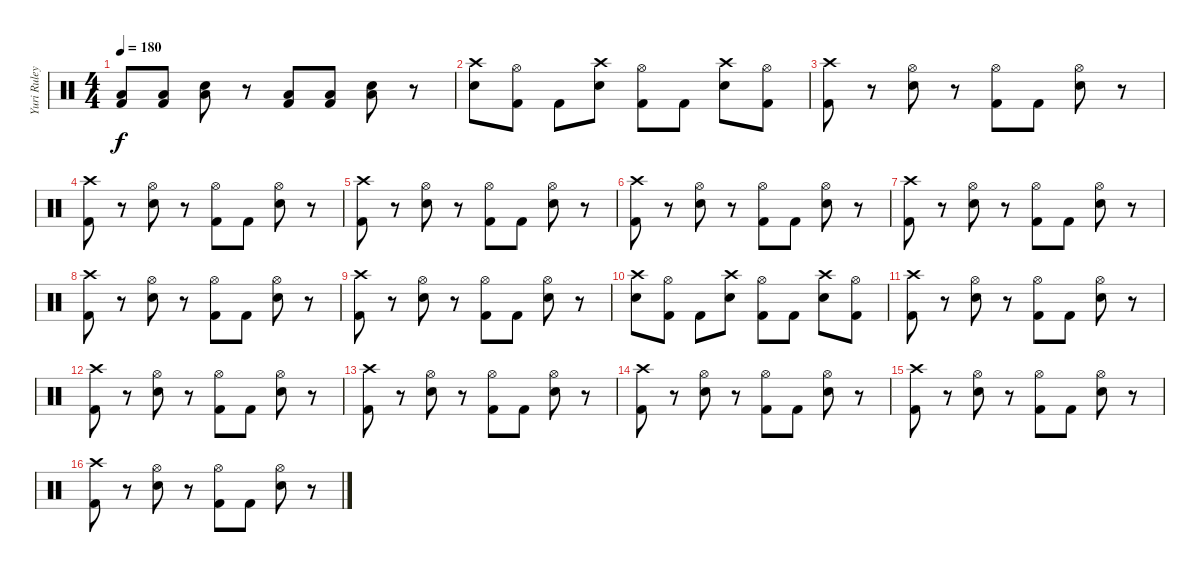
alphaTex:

\track ("Yuri Ruley [Drums]" "Yuri Ruley") {instrument percussion}
\staff {score}
\articulation defaults
\ts (4 4)
\tempo 180
\clef neutral
\ks c
("Low Floor Tom (hit)" "Kick (hit) 2").8{dy f} ("Low Floor Tom (hit)" "Kick (hit) 2").8 ("Low Floor Tom (hit)" "Snare (hit) 2").8 r.8 ("Low Floor Tom (hit)" "Kick (hit) 2").8 ("Low Floor Tom (hit)" "Kick (hit) 2").8 ("Low Floor Tom (hit)" "Snare (hit) 2").8 r.8 |
("Crash high (hit)" "Snare (hit) 2").8 ("Hi-Hat (open)" "Kick (hit) 2").8 "Kick (hit) 2".8 ("Crash high (hit)" "Snare (hit) 2").8 ("Hi-Hat (open)" "Kick (hit) 2").8 "Kick (hit) 2".8 ("Crash high (hit)" "Snare (hit) 2").8 ("Hi-Hat (open)" "Kick (hit) 2").8 |
("Crash high (hit)" "Kick (hit) 2").8 r.8 ("Hi-Hat (open)" "Snare (hit) 2").8 r.8 ("Hi-Hat (open)" "Kick (hit) 2").8 "Kick (hit) 2".8 ("Hi-Hat (open)" "Snare (hit) 2").8 r.8 |
("Crash high (hit)" "Kick (hit) 2").8 r.8 ("Hi-Hat (open)" "Snare (hit) 2").8 r.8 ("Hi-Hat (open)" "Kick (hit) 2").8 "Kick (hit) 2".8 ("Hi-Hat (open)" "Snare (hit) 2").8 r.8 |
("Crash high (hit)" "Kick (hit) 2").8 r.8 ("Hi-Hat (open)" "Snare (hit) 2").8 r.8 ("Hi-Hat (open)" "Kick (hit) 2").8 "Kick (hit) 2".8 ("Hi-Hat (open)" "Snare (hit) 2").8 r.8 |
("Crash high (hit)" "Kick (hit) 2").8 r.8 ("Hi-Hat (open)" "Snare (hit) 2").8 r.8 ("Hi-Hat (open)" "Kick (hit) 2").8 "Kick (hit) 2".8 ("Hi-Hat (open)" "Snare (hit) 2").8 r.8 |
("Crash high (hit)" "Kick (hit) 2").8 r.8 ("Hi-Hat (open)" "Snare (hit) 2").8 r.8 ("Hi-Hat (open)" "Kick (hit) 2").8 "Kick (hit) 2".8 ("Hi-Hat (open)" "Snare (hit) 2").8 r.8 |
("Crash high (hit)" "Kick (hit) 2").8 r.8 ("Hi-Hat (open)" "Snare (hit) 2").8 r.8 ("Hi-Hat (open)" "Kick (hit) 2").8 "Kick (hit) 2".8 ("Hi-Hat (open)" "Snare (hit) 2").8 r.8 |
("Crash high (hit)" "Kick (hit) 2").8 r.8 ("Hi-Hat (open)" "Snare (hit) 2").8 r.8 ("Hi-Hat (open)" "Kick (hit) 2").8 "Kick (hit) 2".8 ("Hi-Hat (open)" "Snare (hit) 2").8 r.8 |
("Crash high (hit)" "Snare (hit) 2").8 ("Hi-Hat (open)" "Kick (hit) 2").8 "Kick (hit) 2".8 ("Crash high (hit)" "Snare (hit) 2").8 ("Hi-Hat (open)" "Kick (hit) 2").8 "Kick (hit) 2".8 ("Crash high (hit)" "Snare (hit) 2").8 ("Hi-Hat (open)" "Kick (hit) 2").8 |
("Crash high (hit)" "Kick (hit) 2").8 r.8 ("Hi-Hat (open)" "Snare (hit) 2").8 r.8 ("Hi-Hat (open)" "Kick (hit) 2").8 "Kick (hit) 2".8 ("Hi-Hat (open)" "Snare (hit) 2").8 r.8 |
("Crash high (hit)" "Kick (hit) 2").8 r.8 ("Hi-Hat (open)" "Snare (hit) 2").8 r.8 ("Hi-Hat (open)" "Kick (hit) 2").8 "Kick (hit) 2".8 ("Hi-Hat (open)" "Snare (hit) 2").8 r.8 |
("Crash high (hit)" "Kick (hit) 2").8 r.8 ("Hi-Hat (open)" "Snare (hit) 2").8 r.8 ("Hi-Hat (open)" "Kick (hit) 2").8 "Kick (hit) 2".8 ("Hi-Hat (open)" "Snare (hit) 2").8 r.8 |
("Crash high (hit)" "Kick (hit) 2").8 r.8 ("Hi-Hat (open)" "Snare (hit) 2").8 r.8 ("Hi-Hat (open)" "Kick (hit) 2").8 "Kick (hit) 2".8 ("Hi-Hat (open)" "Snare (hit) 2").8 r.8 |
("Crash high (hit)" "Kick (hit) 2").8 r.8 ("Hi-Hat (open)" "Snare (hit) 2").8 r.8 ("Hi-Hat (open)" "Kick (hit) 2").8 "Kick (hit) 2".8 ("Hi-Hat (open)" "Snare (hit) 2").8 r.8 |
("Crash high (hit)" "Kick (hit) 2").8 r.8 ("Hi-Hat (open)" "Snare (hit) 2").8 r.8 ("Hi-Hat (open)" "Kick (hit) 2").8 "Kick (hit) 2".8 ("Hi-Hat (open)" "Snare (hit) 2").8 r.8
